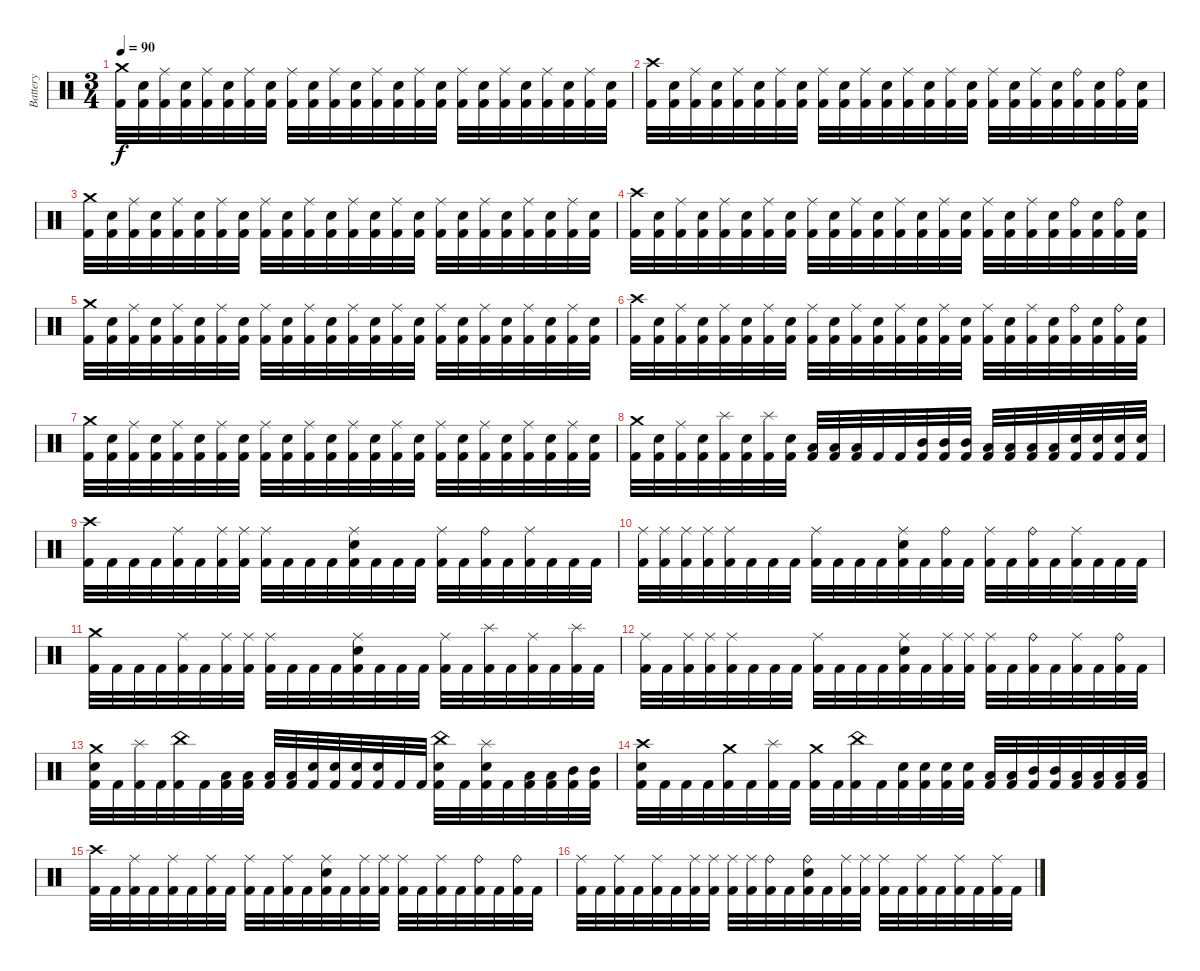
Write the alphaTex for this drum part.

\track ("Battery" "Battery") {instrument percussion}
\staff {score}
\articulation defaults
\ts (3 4)
\tempo 90
\clef neutral
\ks c
("Kick (hit) 2" "Crash medium (hit)").32{dy f} ("Kick (hit) 2" "Snare (hit) 2").32 ("Kick (hit) 2" "Ride (middle)").32 ("Kick (hit) 2" "Snare (hit) 2").32 ("Kick (hit) 2" "Ride (middle)").32 ("Kick (hit) 2" "Snare (hit) 2").32 ("Kick (hit) 2" "Ride (middle)").32 ("Kick (hit) 2" "Snare (hit) 2").32 ("Kick (hit) 2" "Ride (middle)").32 ("Kick (hit) 2" "Snare (hit) 2").32 ("Kick (hit) 2" "Ride (middle)").32 ("Kick (hit) 2" "Snare (hit) 2").32 ("Kick (hit) 2" "Ride (middle)").32 ("Kick (hit) 2" "Snare (hit) 2").32 ("Kick (hit) 2" "Ride (middle)").32 ("Kick (hit) 2" "Snare (hit) 2").32 ("Kick (hit) 2" "Ride (middle)").32 ("Kick (hit) 2" "Snare (hit) 2").32 ("Kick (hit) 2" "Ride (middle)").32 ("Kick (hit) 2" "Snare (hit) 2").32 ("Kick (hit) 2" "Ride (middle)").32 ("Kick (hit) 2" "Snare (hit) 2").32 ("Kick (hit) 2" "Ride (middle)").32 ("Kick (hit) 2" "Snare (hit) 2").32 |
("Kick (hit) 2" "Crash high (hit)").32 ("Kick (hit) 2" "Snare (hit) 2").32 ("Kick (hit) 2" "Ride (middle)").32 ("Kick (hit) 2" "Snare (hit) 2").32 ("Kick (hit) 2" "Ride (middle)").32 ("Kick (hit) 2" "Snare (hit) 2").32 ("Kick (hit) 2" "Ride (middle)").32 ("Kick (hit) 2" "Snare (hit) 2").32 ("Kick (hit) 2" "Ride (middle)").32 ("Kick (hit) 2" "Snare (hit) 2").32 ("Kick (hit) 2" "Ride (middle)").32 ("Kick (hit) 2" "Snare (hit) 2").32 ("Kick (hit) 2" "Ride (middle)").32 ("Kick (hit) 2" "Snare (hit) 2").32 ("Kick (hit) 2" "Ride (middle)").32 ("Kick (hit) 2" "Snare (hit) 2").32 ("Kick (hit) 2" "Ride (middle)").32 ("Kick (hit) 2" "Snare (hit) 2").32 ("Kick (hit) 2" "Ride (middle)").32 ("Kick (hit) 2" "Snare (hit) 2").32 ("Kick (hit) 2" "Ride (bell)").32 ("Kick (hit) 2" "Snare (hit) 2").32 ("Kick (hit) 2" "Ride (bell)").32 ("Kick (hit) 2" "Snare (hit) 2").32 |
("Kick (hit) 2" "Crash medium (hit)").32 ("Kick (hit) 2" "Snare (hit) 2").32 ("Kick (hit) 2" "Ride (middle)").32 ("Kick (hit) 2" "Snare (hit) 2").32 ("Kick (hit) 2" "Ride (middle)").32 ("Kick (hit) 2" "Snare (hit) 2").32 ("Kick (hit) 2" "Ride (middle)").32 ("Kick (hit) 2" "Snare (hit) 2").32 ("Kick (hit) 2" "Ride (middle)").32 ("Kick (hit) 2" "Snare (hit) 2").32 ("Kick (hit) 2" "Ride (middle)").32 ("Kick (hit) 2" "Snare (hit) 2").32 ("Kick (hit) 2" "Ride (middle)").32 ("Kick (hit) 2" "Snare (hit) 2").32 ("Kick (hit) 2" "Ride (middle)").32 ("Kick (hit) 2" "Snare (hit) 2").32 ("Kick (hit) 2" "Ride (middle)").32 ("Kick (hit) 2" "Snare (hit) 2").32 ("Kick (hit) 2" "Ride (middle)").32 ("Kick (hit) 2" "Snare (hit) 2").32 ("Kick (hit) 2" "Ride (middle)").32 ("Kick (hit) 2" "Snare (hit) 2").32 ("Kick (hit) 2" "Ride (middle)").32 ("Kick (hit) 2" "Snare (hit) 2").32 |
("Kick (hit) 2" "Crash high (hit)").32 ("Kick (hit) 2" "Snare (hit) 2").32 ("Kick (hit) 2" "Ride (middle)").32 ("Kick (hit) 2" "Snare (hit) 2").32 ("Kick (hit) 2" "Ride (middle)").32 ("Kick (hit) 2" "Snare (hit) 2").32 ("Kick (hit) 2" "Ride (middle)").32 ("Kick (hit) 2" "Snare (hit) 2").32 ("Kick (hit) 2" "Ride (middle)").32 ("Kick (hit) 2" "Snare (hit) 2").32 ("Kick (hit) 2" "Ride (middle)").32 ("Kick (hit) 2" "Snare (hit) 2").32 ("Kick (hit) 2" "Ride (middle)").32 ("Kick (hit) 2" "Snare (hit) 2").32 ("Kick (hit) 2" "Ride (middle)").32 ("Kick (hit) 2" "Snare (hit) 2").32 ("Kick (hit) 2" "Ride (middle)").32 ("Kick (hit) 2" "Snare (hit) 2").32 ("Kick (hit) 2" "Ride (middle)").32 ("Kick (hit) 2" "Snare (hit) 2").32 ("Kick (hit) 2" "Ride (bell)").32 ("Kick (hit) 2" "Snare (hit) 2").32 ("Kick (hit) 2" "Ride (bell)").32 ("Kick (hit) 2" "Snare (hit) 2").32 |
("Kick (hit) 2" "Crash medium (hit)").32 ("Kick (hit) 2" "Snare (hit) 2").32 ("Kick (hit) 2" "Ride (middle)").32 ("Kick (hit) 2" "Snare (hit) 2").32 ("Kick (hit) 2" "Ride (middle)").32 ("Kick (hit) 2" "Snare (hit) 2").32 ("Kick (hit) 2" "Ride (middle)").32 ("Kick (hit) 2" "Snare (hit) 2").32 ("Kick (hit) 2" "Ride (middle)").32 ("Kick (hit) 2" "Snare (hit) 2").32 ("Kick (hit) 2" "Ride (middle)").32 ("Kick (hit) 2" "Snare (hit) 2").32 ("Kick (hit) 2" "Ride (middle)").32 ("Kick (hit) 2" "Snare (hit) 2").32 ("Kick (hit) 2" "Ride (middle)").32 ("Kick (hit) 2" "Snare (hit) 2").32 ("Kick (hit) 2" "Ride (middle)").32 ("Kick (hit) 2" "Snare (hit) 2").32 ("Kick (hit) 2" "Ride (middle)").32 ("Kick (hit) 2" "Snare (hit) 2").32 ("Kick (hit) 2" "Ride (middle)").32 ("Kick (hit) 2" "Snare (hit) 2").32 ("Kick (hit) 2" "Ride (middle)").32 ("Kick (hit) 2" "Snare (hit) 2").32 |
("Kick (hit) 2" "Crash high (hit)").32 ("Kick (hit) 2" "Snare (hit) 2").32 ("Kick (hit) 2" "Ride (middle)").32 ("Kick (hit) 2" "Snare (hit) 2").32 ("Kick (hit) 2" "Ride (middle)").32 ("Kick (hit) 2" "Snare (hit) 2").32 ("Kick (hit) 2" "Ride (middle)").32 ("Kick (hit) 2" "Snare (hit) 2").32 ("Kick (hit) 2" "Ride (middle)").32 ("Kick (hit) 2" "Snare (hit) 2").32 ("Kick (hit) 2" "Ride (middle)").32 ("Kick (hit) 2" "Snare (hit) 2").32 ("Kick (hit) 2" "Ride (middle)").32 ("Kick (hit) 2" "Snare (hit) 2").32 ("Kick (hit) 2" "Ride (middle)").32 ("Kick (hit) 2" "Snare (hit) 2").32 ("Kick (hit) 2" "Ride (middle)").32 ("Kick (hit) 2" "Snare (hit) 2").32 ("Kick (hit) 2" "Ride (middle)").32 ("Kick (hit) 2" "Snare (hit) 2").32 ("Kick (hit) 2" "Ride (bell)").32 ("Kick (hit) 2" "Snare (hit) 2").32 ("Kick (hit) 2" "Ride (bell)").32 ("Kick (hit) 2" "Snare (hit) 2").32 |
("Kick (hit) 2" "Crash medium (hit)").32 ("Kick (hit) 2" "Snare (hit) 2").32 ("Kick (hit) 2" "Ride (middle)").32 ("Kick (hit) 2" "Snare (hit) 2").32 ("Kick (hit) 2" "Ride (middle)").32 ("Kick (hit) 2" "Snare (hit) 2").32 ("Kick (hit) 2" "Ride (middle)").32 ("Kick (hit) 2" "Snare (hit) 2").32 ("Kick (hit) 2" "Ride (middle)").32 ("Kick (hit) 2" "Snare (hit) 2").32 ("Kick (hit) 2" "Ride (middle)").32 ("Kick (hit) 2" "Snare (hit) 2").32 ("Kick (hit) 2" "Ride (middle)").32 ("Kick (hit) 2" "Snare (hit) 2").32 ("Kick (hit) 2" "Ride (middle)").32 ("Kick (hit) 2" "Snare (hit) 2").32 ("Kick (hit) 2" "Ride (middle)").32 ("Kick (hit) 2" "Snare (hit) 2").32 ("Kick (hit) 2" "Ride (middle)").32 ("Kick (hit) 2" "Snare (hit) 2").32 ("Kick (hit) 2" "Ride (middle)").32 ("Kick (hit) 2" "Snare (hit) 2").32 ("Kick (hit) 2" "Ride (middle)").32 ("Kick (hit) 2" "Snare (hit) 2").32 |
("Kick (hit) 2" "Crash medium (hit)").32 ("Kick (hit) 2" "Snare (hit) 2").32 ("Kick (hit) 2" "Ride (middle)").32 ("Kick (hit) 2" "Snare (hit) 2").32 ("Kick (hit) 2" "Splash (hit)").32 ("Kick (hit) 2" "Snare (hit) 2").32 ("Kick (hit) 2" "Splash (hit)").32 ("Kick (hit) 2" "Snare (hit) 2").32 ("Kick (hit) 2" "Low Tom (hit)").32 ("Kick (hit) 2" "Low Tom (hit)").32 ("Kick (hit) 2" "Low Tom (hit)").32 "Kick (hit) 2".32 "Kick (hit) 2".32 ("Kick (hit) 2" "Mid Tom (hit)").32 ("Kick (hit) 2" "Mid Tom (hit)").32 ("Kick (hit) 2" "Mid Tom (hit)").32 ("Kick (hit) 2" "Low Tom (hit)").32 ("Kick (hit) 2" "Low Tom (hit)").32 ("Kick (hit) 2" "Low Tom (hit)").32 ("Kick (hit) 2" "Low Tom (hit)").32 ("Kick (hit) 2" "Snare (hit) 2").32 ("Kick (hit) 2" "Snare (hit) 2").32 ("Kick (hit) 2" "Snare (hit) 2").32 ("Kick (hit) 2" "Snare (hit) 2").32 |
("Kick (hit) 2" "Crash high (hit)").32 "Kick (hit) 2".32 "Kick (hit) 2".32 "Kick (hit) 2".32 ("Kick (hit) 2" "Ride (middle)").32 "Kick (hit) 2".32 ("Kick (hit) 2" "Ride (middle)").32 ("Kick (hit) 2" "Ride (middle)").32 ("Kick (hit) 2" "Ride (middle)").32 "Kick (hit) 2".32 "Kick (hit) 2".32 "Kick (hit) 2".32 ("Kick (hit) 2" "Snare (hit) 2" "Ride (middle)").32 "Kick (hit) 2".32 "Kick (hit) 2".32 "Kick (hit) 2".32 ("Kick (hit) 2" "Ride (middle)").32 "Kick (hit) 2".32 ("Kick (hit) 2" "Ride (bell)").32 "Kick (hit) 2".32 ("Kick (hit) 2" "Ride (middle)").32 "Kick (hit) 2".32 "Kick (hit) 2".32 "Kick (hit) 2".32 |
("Kick (hit) 2" "Ride (middle)").32 ("Kick (hit) 2" "Ride (middle)").32 ("Kick (hit) 2" "Ride (middle)").32 ("Kick (hit) 2" "Ride (middle)").32 ("Kick (hit) 2" "Ride (middle)").32 "Kick (hit) 2".32 "Kick (hit) 2".32 "Kick (hit) 2".32 ("Kick (hit) 2" "Ride (middle)").32 "Kick (hit) 2".32 "Kick (hit) 2".32 "Kick (hit) 2".32 ("Kick (hit) 2" "Snare (hit) 2" "Ride (middle)").32 "Kick (hit) 2".32 ("Kick (hit) 2" "Ride (bell)").32 "Kick (hit) 2".32 ("Kick (hit) 2" "Ride (middle)").32 "Kick (hit) 2".32 ("Kick (hit) 2" "Ride (bell)").32 "Kick (hit) 2".32 ("Kick (hit) 2" "Ride (middle)").32 "Kick (hit) 2".32 "Kick (hit) 2".32 "Kick (hit) 2".32 |
("Kick (hit) 2" "Crash medium (hit)").32 "Kick (hit) 2".32 "Kick (hit) 2".32 "Kick (hit) 2".32 ("Kick (hit) 2" "Ride (middle)").32 "Kick (hit) 2".32 ("Kick (hit) 2" "Ride (middle)").32 ("Kick (hit) 2" "Ride (middle)").32 ("Kick (hit) 2" "Ride (middle)").32 "Kick (hit) 2".32 "Kick (hit) 2".32 "Kick (hit) 2".32 ("Kick (hit) 2" "Snare (hit) 2" "Ride (middle)").32 "Kick (hit) 2".32 "Kick (hit) 2".32 "Kick (hit) 2".32 ("Kick (hit) 2" "Ride (middle)").32 "Kick (hit) 2".32 ("Kick (hit) 2" "Splash (hit)").32 "Kick (hit) 2".32 ("Kick (hit) 2" "Ride (middle)").32 "Kick (hit) 2".32 ("Kick (hit) 2" "Splash (hit)").32 "Kick (hit) 2".32 |
("Kick (hit) 2" "Ride (middle)").32 "Kick (hit) 2".32 ("Kick (hit) 2" "Ride (middle)").32 ("Kick (hit) 2" "Ride (middle)").32 ("Kick (hit) 2" "Ride (middle)").32 "Kick (hit) 2".32 "Kick (hit) 2".32 "Kick (hit) 2".32 ("Kick (hit) 2" "Ride (middle)").32 "Kick (hit) 2".32 "Kick (hit) 2".32 "Kick (hit) 2".32 ("Kick (hit) 2" "Snare (hit) 2" "Ride (middle)").32 "Kick (hit) 2".32 ("Kick (hit) 2" "Ride (middle)").32 ("Kick (hit) 2" "Ride (middle)").32 ("Kick (hit) 2" "Ride (middle)").32 "Kick (hit) 2".32 ("Kick (hit) 2" "Ride (bell)").32 "Kick (hit) 2".32 ("Kick (hit) 2" "Ride (middle)").32 "Kick (hit) 2".32 ("Kick (hit) 2" "Ride (bell)").32 "Kick (hit) 2".32 |
("Kick (hit) 2" "Snare (hit) 2" "Crash medium (hit)").32 "Kick (hit) 2".32 ("Kick (hit) 2" "Splash (hit)").32 "Kick (hit) 2".32 ("Kick (hit) 2" "China (hit)").32 "Kick (hit) 2".32 ("Kick (hit) 2" "Low Tom (hit)").32 ("Kick (hit) 2" "Low Tom (hit)").32 ("Kick (hit) 2" "Low Tom (hit)").32 ("Kick (hit) 2" "Low Tom (hit)").32 ("Kick (hit) 2" "Snare (hit) 2").32 ("Kick (hit) 2" "Snare (hit) 2").32 ("Kick (hit) 2" "Snare (hit) 2").32 ("Kick (hit) 2" "Snare (hit) 2").32 "Kick (hit) 2".32 "Kick (hit) 2".32 ("Kick (hit) 2" "Snare (hit) 2" "China (hit)").32 "Kick (hit) 2".32 ("Kick (hit) 2" "Snare (hit) 2" "Splash (hit)").32 "Kick (hit) 2".32 ("Kick (hit) 2" "Low Tom (hit)").32 ("Kick (hit) 2" "Low Tom (hit)").32 ("Kick (hit) 2" "Mid Tom (hit)").32 ("Kick (hit) 2" "Mid Tom (hit)").32 |
("Kick (hit) 2" "Snare (hit) 2" "Crash high (hit)").32 "Kick (hit) 2".32 "Kick (hit) 2".32 "Kick (hit) 2".32 ("Kick (hit) 2" "Crash medium (hit)").32 "Kick (hit) 2".32 ("Kick (hit) 2" "Splash (hit)").32 "Kick (hit) 2".32 ("Kick (hit) 2" "Crash medium (hit)").32 "Kick (hit) 2".32 ("Kick (hit) 2" "China (hit)").32 "Kick (hit) 2".32 ("Kick (hit) 2" "Snare (hit) 2").32 ("Kick (hit) 2" "Snare (hit) 2").32 ("Kick (hit) 2" "Snare (hit) 2").32 ("Kick (hit) 2" "Snare (hit) 2").32 ("Kick (hit) 2" "Low Tom (hit)").32 ("Kick (hit) 2" "Low Tom (hit)").32 ("Kick (hit) 2" "Mid Tom (hit)").32 ("Kick (hit) 2" "Mid Tom (hit)").32 ("Kick (hit) 2" "Low Tom (hit)").32 ("Kick (hit) 2" "Low Tom (hit)").32 ("Kick (hit) 2" "Low Tom (hit)").32 ("Kick (hit) 2" "Low Tom (hit)").32 |
("Kick (hit) 2" "Crash high (hit)").32 "Kick (hit) 2".32 ("Kick (hit) 2" "Ride (middle)").32 "Kick (hit) 2".32 ("Kick (hit) 2" "Ride (middle)").32 "Kick (hit) 2".32 ("Kick (hit) 2" "Ride (middle)").32 "Kick (hit) 2".32 ("Kick (hit) 2" "Ride (middle)").32 "Kick (hit) 2".32 ("Kick (hit) 2" "Ride (middle)").32 "Kick (hit) 2".32 ("Kick (hit) 2" "Snare (hit) 2" "Ride (middle)").32 "Kick (hit) 2".32 ("Kick (hit) 2" "Ride (middle)").32 ("Kick (hit) 2" "Ride (middle)").32 ("Kick (hit) 2" "Ride (middle)").32 "Kick (hit) 2".32 ("Kick (hit) 2" "Ride (middle)").32 "Kick (hit) 2".32 ("Kick (hit) 2" "Ride (bell)").32 "Kick (hit) 2".32 ("Kick (hit) 2" "Ride (bell)").32 "Kick (hit) 2".32 |
("Kick (hit) 2" "Ride (middle)").32 "Kick (hit) 2".32 ("Kick (hit) 2" "Ride (middle)").32 "Kick (hit) 2".32 ("Kick (hit) 2" "Ride (middle)").32 "Kick (hit) 2".32 ("Kick (hit) 2" "Ride (middle)").32 ("Kick (hit) 2" "Ride (middle)").32 ("Kick (hit) 2" "Ride (middle)").32 ("Kick (hit) 2" "Ride (middle)").32 ("Kick (hit) 2" "Ride (bell)").32 "Kick (hit) 2".32 ("Kick (hit) 2" "Snare (hit) 2" "Ride (bell)").32 "Kick (hit) 2".32 ("Kick (hit) 2" "Ride (middle)").32 ("Kick (hit) 2" "Ride (middle)").32 ("Kick (hit) 2" "Ride (middle)").32 "Kick (hit) 2".32 ("Kick (hit) 2" "Ride (middle)").32 "Kick (hit) 2".32 ("Kick (hit) 2" "Ride (middle)").32 "Kick (hit) 2".32 ("Kick (hit) 2" "Ride (middle)").32 "Kick (hit) 2".32
